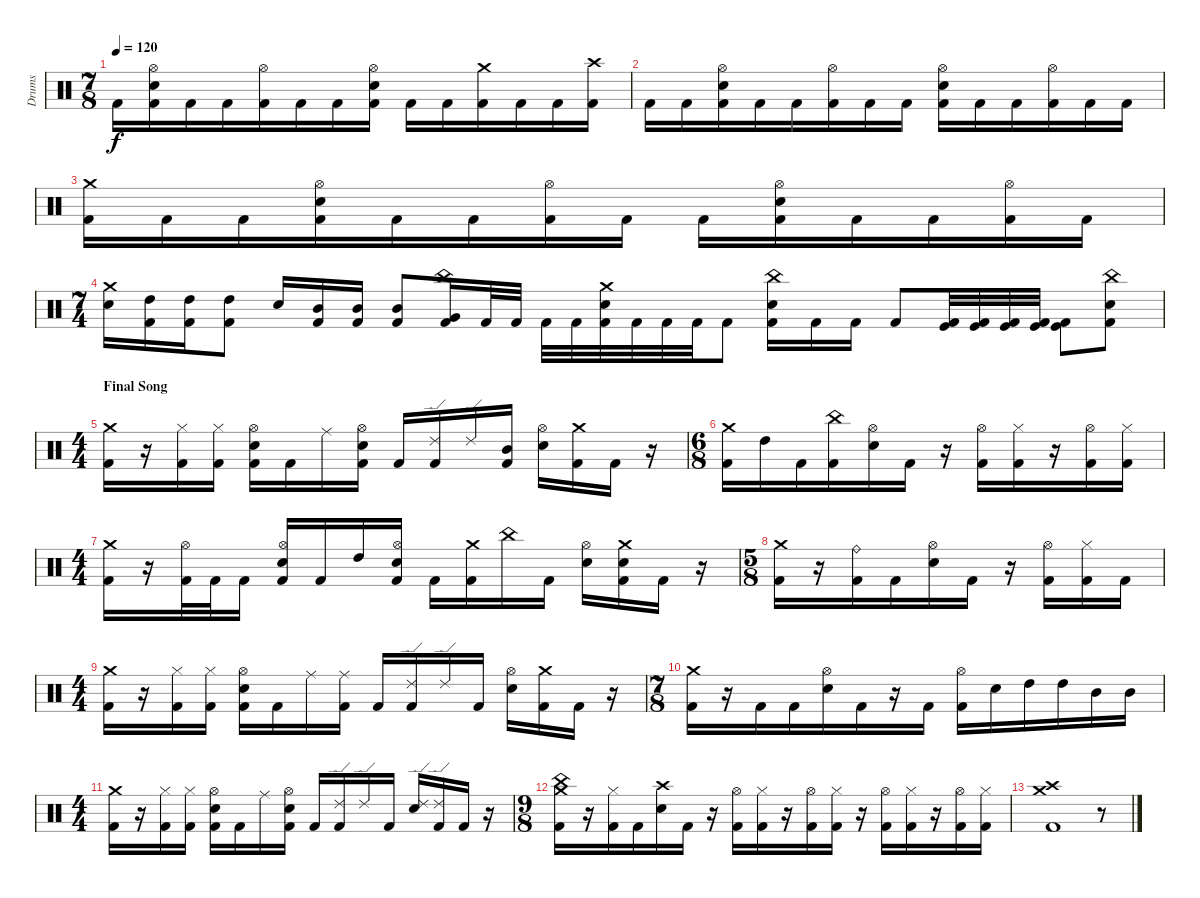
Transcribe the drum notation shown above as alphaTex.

\track ("Drums" "Drums") {instrument percussion}
\staff {score}
\articulation defaults
\ts (7 8)
\tempo 120
\clef neutral
\ks c "Kick (hit) 2".16{dy f}
("Hi-Hat (open)" "Electric Snare (hit)" "Kick (hit) 2").16 "Kick (hit) 2".16 "Kick (hit) 2".16 ("Hi-Hat (open)" "Kick (hit) 2").16 "Kick (hit) 2".16 "Kick (hit) 2".16 ("Hi-Hat (open)" "Electric Snare (hit)" "Kick (hit) 2").16 "Kick (hit) 2".16 "Kick (hit) 2".16 ("Crash medium (hit)" "Kick (hit) 2").16 "Kick (hit) 2".16 "Kick (hit) 2".16 ("Crash high (hit)" "Kick (hit) 2").16 |
"Kick (hit) 2".16 "Kick (hit) 2".16 ("Hi-Hat (open)" "Electric Snare (hit)" "Kick (hit) 2").16 "Kick (hit) 2".16 "Kick (hit) 2".16 ("Hi-Hat (open)" "Kick (hit) 2").16 "Kick (hit) 2".16 "Kick (hit) 2".16 ("Hi-Hat (open)" "Electric Snare (hit)" "Kick (hit) 2").16 "Kick (hit) 2".16 "Kick (hit) 2".16 ("Hi-Hat (open)" "Kick (hit) 2").16 "Kick (hit) 2".16 "Kick (hit) 2".16 |
("Crash medium (hit)" "Kick (hit) 2").16 "Kick (hit) 2".16 "Kick (hit) 2".16 ("Hi-Hat (open)" "Electric Snare (hit)" "Kick (hit) 2").16 "Kick (hit) 2".16 "Kick (hit) 2".16 ("Hi-Hat (open)" "Kick (hit) 2").16 "Kick (hit) 2".16 "Kick (hit) 2".16 ("Hi-Hat (open)" "Electric Snare (hit)" "Kick (hit) 2").16 "Kick (hit) 2".16 "Kick (hit) 2".16 ("Hi-Hat (open)" "Kick (hit) 2").16 "Kick (hit) 2".16 |
\ts (7 4)
("Crash medium (hit)" "Electric Snare (hit)").16 ("High Tom (hit)" "Kick (hit) 2").16 ("High Tom (hit)" "Kick (hit) 2").16 ("High Tom (hit)" "Kick (hit) 2").8 "Electric Snare (hit)".16 ("Mid Tom (hit)" "Kick (hit) 2").16 ("Mid Tom (hit)" "Kick (hit) 2").16 ("Mid Tom (hit)" "Kick (hit) 2").8 ("China (hit)" "Very Low Tom (hit)" "Kick (hit) 2").16 "Kick (hit) 2".32 "Kick (hit) 2".32 "Kick (hit) 2".32 "Kick (hit) 2".32 ("Crash medium (hit)" "Electric Snare (hit)" "Kick (hit) 2").32 "Kick (hit) 2".32 "Kick (hit) 2".32 "Kick (hit) 2".32 "Kick (hit) 2".8 ("China (hit)" "Electric Snare (hit)" "Kick (hit) 2").16 "Kick (hit) 2".16 "Kick (hit) 2".16 "Kick (hit) 2".8 ("Kick (hit)" "Kick (hit) 2").32 ("Kick (hit)" "Kick (hit) 2").32 ("Kick (hit)" "Kick (hit) 2").32 ("Kick (hit)" "Kick (hit) 2").32 ("Kick (hit)" "Kick (hit) 2").8 ("China (hit)" "Electric Snare (hit)" "Kick (hit) 2").8 |
\ts (4 4)
\section ("" "Final Song")
("Crash medium (hit)" "Kick (hit) 2").16 r.16 ("Hi-Hat (closed)" "Kick (hit) 2").16 ("Hi-Hat (closed)" "Kick (hit) 2").16 ("Hi-Hat (open)" "Electric Snare (hit)" "Kick (hit) 2").16 "Kick (hit) 2".16 "Ride (middle)".16 ("Hi-Hat (open)" "Electric Snare (hit)" "Kick (hit) 2").16 "Kick (hit) 2".16 ("Ride (edge) 2" "Kick (hit) 2").16 "Ride (edge) 2".16 ("Mid Tom (hit)" "Kick (hit) 2").16 ("Hi-Hat (open)" "Electric Snare (hit)").16 ("Crash medium (hit)" "Kick (hit) 2").16 "Kick (hit) 2".16 r.16 |
\ts (6 8)
("Crash medium (hit)" "Kick (hit) 2").16 "High Tom (hit)".16 "Kick (hit) 2".16 ("China (hit)" "Kick (hit) 2").16 ("Hi-Hat (open)" "Electric Snare (hit)").16 "Kick (hit) 2".16 r.16 ("Hi-Hat (open)" "Kick (hit) 2").16 ("Hi-Hat (closed)" "Kick (hit) 2").16 r.16 ("Hi-Hat (open)" "Kick (hit) 2").16 ("Hi-Hat (closed)" "Kick (hit) 2").16 |
\ts (4 4)
("Crash medium (hit)" "Kick (hit) 2").16 r.16 ("Hi-Hat (open)" "Kick (hit) 2").32 "Kick (hit) 2".32 "Kick (hit) 2".16 ("Hi-Hat (open)" "Electric Snare (hit)" "Kick (hit) 2").16 "Kick (hit) 2".16 "High Tom (hit)".16 ("Hi-Hat (open)" "Electric Snare (hit)" "Kick (hit) 2").16 "Kick (hit) 2".16 ("Crash medium (hit)" "Kick (hit) 2").16 "China (hit)".16 "Kick (hit) 2".16 ("Hi-Hat (open)" "Electric Snare (hit)").16 ("Crash medium (hit)" "Electric Snare (hit)" "Kick (hit) 2").16 "Kick (hit) 2".16 r.16 |
\ts (5 8)
("Crash medium (hit)" "Kick (hit) 2").16 r.16 ("Ride (bell)" "Kick (hit) 2").16 "Kick (hit) 2".16 ("Hi-Hat (open)" "Electric Snare (hit)").16 "Kick (hit) 2".16 r.16 ("Hi-Hat (open)" "Kick (hit) 2").16 ("Hi-Hat (closed)" "Kick (hit) 2").16 "Kick (hit) 2".16 |
\ts (4 4)
("Crash medium (hit)" "Kick (hit) 2").16 r.16 ("Hi-Hat (closed)" "Kick (hit) 2").16 ("Hi-Hat (closed)" "Kick (hit) 2").16 ("Hi-Hat (open)" "Electric Snare (hit)" "Kick (hit) 2").16 "Kick (hit) 2".16 "Ride (middle)".16 ("Ride (middle)" "Kick (hit) 2").16 "Kick (hit) 2".16 ("Ride (edge) 2" "Kick (hit) 2").16 "Ride (edge) 2".16 "Kick (hit) 2".16 ("Hi-Hat (open)" "Electric Snare (hit)").16 ("Crash medium (hit)" "Kick (hit) 2").16 "Kick (hit) 2".16 r.16 |
\ts (7 8)
("Crash medium (hit)" "Kick (hit) 2").16 r.16 "Kick (hit) 2".16 "Kick (hit) 2".16 ("Hi-Hat (open)" "Electric Snare (hit)").16 "Kick (hit) 2".16 r.16 "Kick (hit) 2".16 ("Hi-Hat (open)" "Kick (hit) 2").16 "Electric Snare (hit)".16 "High Tom (hit)".16 "High Tom (hit)".16 "Mid Tom (hit)".16 "Mid Tom (hit)".16 |
\ts (4 4)
("Crash medium (hit)" "Kick (hit) 2").16 r.16 ("Hi-Hat (closed)" "Kick (hit) 2").16 ("Hi-Hat (closed)" "Kick (hit) 2").16 ("Hi-Hat (open)" "Electric Snare (hit)" "Kick (hit) 2").16 "Kick (hit) 2".16 "Ride (middle)".16 ("Hi-Hat (open)" "Electric Snare (hit)" "Kick (hit) 2").16 "Kick (hit) 2".16 ("Ride (edge) 2" "Kick (hit) 2").16 "Ride (edge) 2".16 "Kick (hit) 2".16 ("Ride (edge) 2" "Electric Snare (hit)").16 ("Ride (edge) 2" "Kick (hit) 2").16 "Kick (hit) 2".16 r.16 |
\ts (9 8)
("China (hit)" "Crash medium (hit)" "Kick (hit) 2").16 r.16 ("Hi-Hat (closed)" "Kick (hit) 2").16 "Kick (hit) 2".16 ("Crash high (hit)" "Electric Snare (hit)").16 "Kick (hit) 2".16 r.16 ("Hi-Hat (open)" "Kick (hit) 2").16 ("Hi-Hat (closed)" "Kick (hit) 2").16 r.16 ("Hi-Hat (open)" "Kick (hit) 2").16 ("Hi-Hat (closed)" "Kick (hit) 2").16 r.16 ("Hi-Hat (open)" "Kick (hit) 2").16 ("Hi-Hat (closed)" "Kick (hit) 2").16 r.16 ("Hi-Hat (open)" "Kick (hit) 2").16 ("Hi-Hat (closed)" "Kick (hit) 2").16 |
("Crash medium (hit)" "Crash high (hit)" "Kick (hit) 2").1 r.8
